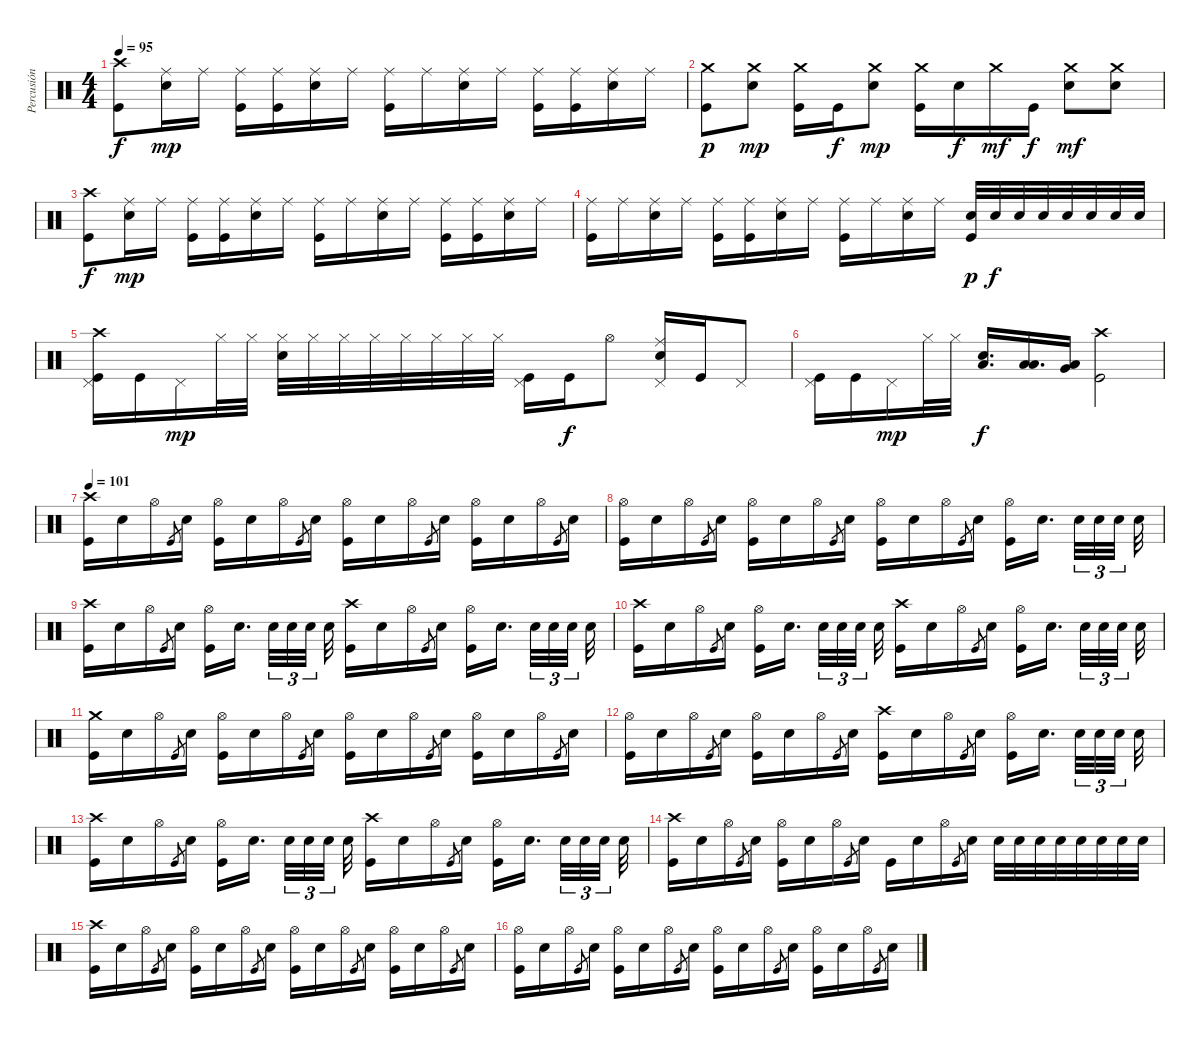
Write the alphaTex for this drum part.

\track ("Percusión" "Percusión") {instrument percussion}
\staff {score}
\articulation defaults
\ts (4 4)
\tempo 95
\clef neutral
\ks c
("Kick (hit)" "Crash high (hit)").8{dy f} ("Snare (hit) 2" "Ride (middle)").16{dy mp} "Ride (middle)".16 ("Kick (hit)" "Ride (middle)").16 ("Kick (hit)" "Ride (middle)").16 ("Snare (hit) 2" "Ride (middle)").16 "Ride (middle)".16 ("Kick (hit)" "Ride (middle)").16 "Ride (middle)".16 ("Snare (hit) 2" "Ride (middle)").16 "Ride (middle)".16 ("Kick (hit)" "Ride (middle)").16 ("Kick (hit)" "Ride (middle)").16 ("Snare (hit) 2" "Ride (middle)").16 "Ride (middle)".16 |
("Kick (hit)" "Crash medium (hit)").8{dy p} ("Snare (hit) 2" "Crash medium (hit)").8{dy mp} ("Kick (hit)" "Crash medium (hit)").16 "Kick (hit)".16{dy f} ("Snare (hit) 2" "Crash medium (hit)").8{dy mp} ("Kick (hit)" "Crash medium (hit)").16 "Snare (hit) 2".16{dy f} "Crash medium (hit)".16{dy mf} "Kick (hit)".16{dy f} ("Snare (hit) 2" "Crash medium (hit)").8{dy mf} ("Snare (hit) 2" "Crash medium (hit)").8 |
("Kick (hit)" "Crash high (hit)").8{dy f} ("Snare (hit) 2" "Ride (middle)").16{dy mp} "Ride (middle)".16 ("Kick (hit)" "Ride (middle)").16 ("Kick (hit)" "Ride (middle)").16 ("Snare (hit) 2" "Ride (middle)").16 "Ride (middle)".16 ("Kick (hit)" "Ride (middle)").16 "Ride (middle)".16 ("Snare (hit) 2" "Ride (middle)").16 "Ride (middle)".16 ("Kick (hit)" "Ride (middle)").16 ("Kick (hit)" "Ride (middle)").16 ("Snare (hit) 2" "Ride (middle)").16 "Ride (middle)".16 |
("Kick (hit)" "Ride (middle)").16 "Ride (middle)".16 ("Snare (hit) 2" "Ride (middle)").16 "Ride (middle)".16 ("Kick (hit)" "Ride (middle)").16 ("Kick (hit)" "Ride (middle)").16 ("Snare (hit) 2" "Ride (middle)").16 "Ride (middle)".16 ("Kick (hit)" "Ride (middle)").16 "Ride (middle)".16 ("Snare (hit) 2" "Ride (middle)").16 "Ride (middle)".16 ("Snare (hit) 2" "Kick (hit)").32{dy p} "Snare (hit) 2".32{dy f} "Snare (hit) 2".32 "Snare (hit) 2".32 "Snare (hit) 2".32 "Snare (hit) 2".32 "Snare (hit) 2".32 "Snare (hit) 2".32 |
("Kick (hit)" "Pedal Hi-Hat (hit)" "Crash high (hit)").16 "Kick (hit)".16 "Pedal Hi-Hat (hit)".16{dy mp} "Hi-Hat (closed)".32 "Hi-Hat (closed)".32 ("Snare (hit) 2" "Hi-Hat (closed)").32 "Hi-Hat (closed)".32 "Hi-Hat (closed)".32 "Hi-Hat (closed)".32 "Hi-Hat (closed)".32 "Hi-Hat (closed)".32 "Hi-Hat (closed)".32 "Hi-Hat (closed)".32 ("Kick (hit)" "Pedal Hi-Hat (hit)").16 "Kick (hit)".16{dy f} "Hi-Hat (open)".8 ("Snare (hit) 2" "Pedal Hi-Hat (hit)" "Ride (middle)").16 "Kick (hit)".16 "Pedal Hi-Hat (hit)".8 |
("Kick (hit)" "Pedal Hi-Hat (hit)").16 "Kick (hit)".16 "Pedal Hi-Hat (hit)".16{dy mp} "Hi-Hat (closed)".32 "Hi-Hat (closed)".32 ("Snare (hit) 2" "Low Floor Tom (hit)").16{d dy f} ("Low Tom (hit)" "Low Floor Tom (hit)").16{d} ("Very Low Tom (hit)" "Low Floor Tom (hit)").16 ("Kick (hit)" "Crash high (hit)").2 |
\tempo 101
("Kick (hit)" "Crash high (hit)").16 "Snare (hit) 2".16 "Hi-Hat (open)".16 "Kick (hit)".8{gr} "Snare (hit) 2".16 ("Kick (hit)" "Hi-Hat (open)").16 "Snare (hit) 2".16 "Hi-Hat (open)".16 "Kick (hit)".8{gr} "Snare (hit) 2".16 ("Kick (hit)" "Hi-Hat (open)").16 "Snare (hit) 2".16 "Hi-Hat (open)".16 "Kick (hit)".8{gr} "Snare (hit) 2".16 ("Kick (hit)" "Hi-Hat (open)").16 "Snare (hit) 2".16 "Hi-Hat (open)".16 "Kick (hit)".8{gr} "Snare (hit) 2".16 |
("Kick (hit)" "Hi-Hat (open)").16 "Snare (hit) 2".16 "Hi-Hat (open)".16 "Kick (hit)".8{gr} "Snare (hit) 2".16 ("Kick (hit)" "Hi-Hat (open)").16 "Snare (hit) 2".16 "Hi-Hat (open)".16 "Kick (hit)".8{gr} "Snare (hit) 2".16 ("Kick (hit)" "Hi-Hat (open)").16 "Snare (hit) 2".16 "Hi-Hat (open)".16 "Kick (hit)".8{gr} "Snare (hit) 2".16 ("Kick (hit)" "Hi-Hat (open)").16 "Snare (hit) 2".16{d beam splitsecondary} "Snare (hit) 2".32{tu (3 2)} "Snare (hit) 2".32{tu (3 2)} "Snare (hit) 2".32{tu (3 2) beam splitsecondary} "Snare (hit) 2".32 |
("Kick (hit)" "Crash high (hit)").16 "Snare (hit) 2".16 "Hi-Hat (open)".16 "Kick (hit)".8{gr} "Snare (hit) 2".16 ("Kick (hit)" "Hi-Hat (open)").16 "Snare (hit) 2".16{d beam splitsecondary} "Snare (hit) 2".32{tu (3 2)} "Snare (hit) 2".32{tu (3 2)} "Snare (hit) 2".32{tu (3 2) beam splitsecondary} "Snare (hit) 2".32 ("Kick (hit)" "Crash high (hit)").16 "Snare (hit) 2".16 "Hi-Hat (open)".16 "Kick (hit)".8{gr} "Snare (hit) 2".16 ("Kick (hit)" "Hi-Hat (open)").16 "Snare (hit) 2".16{d beam splitsecondary} "Snare (hit) 2".32{tu (3 2)} "Snare (hit) 2".32{tu (3 2)} "Snare (hit) 2".32{tu (3 2) beam splitsecondary} "Snare (hit) 2".32 |
("Kick (hit)" "Crash high (hit)").16 "Snare (hit) 2".16 "Hi-Hat (open)".16 "Kick (hit)".8{gr} "Snare (hit) 2".16 ("Kick (hit)" "Hi-Hat (open)").16 "Snare (hit) 2".16{d beam splitsecondary} "Snare (hit) 2".32{tu (3 2)} "Snare (hit) 2".32{tu (3 2)} "Snare (hit) 2".32{tu (3 2) beam splitsecondary} "Snare (hit) 2".32 ("Kick (hit)" "Crash high (hit)").16 "Snare (hit) 2".16 "Hi-Hat (open)".16 "Kick (hit)".8{gr} "Snare (hit) 2".16 ("Kick (hit)" "Hi-Hat (open)").16 "Snare (hit) 2".16{d beam splitsecondary} "Snare (hit) 2".32{tu (3 2)} "Snare (hit) 2".32{tu (3 2)} "Snare (hit) 2".32{tu (3 2) beam splitsecondary} "Snare (hit) 2".32 |
("Kick (hit)" "Crash medium (hit)").16 "Snare (hit) 2".16 "Hi-Hat (open)".16 "Kick (hit)".8{gr} "Snare (hit) 2".16 ("Kick (hit)" "Hi-Hat (open)").16 "Snare (hit) 2".16 "Hi-Hat (open)".16 "Kick (hit)".8{gr} "Snare (hit) 2".16 ("Kick (hit)" "Hi-Hat (open)").16 "Snare (hit) 2".16 "Hi-Hat (open)".16 "Kick (hit)".8{gr} "Snare (hit) 2".16 ("Kick (hit)" "Hi-Hat (open)").16 "Snare (hit) 2".16 "Hi-Hat (open)".16 "Kick (hit)".8{gr} "Snare (hit) 2".16 |
("Kick (hit)" "Hi-Hat (open)").16 "Snare (hit) 2".16 "Hi-Hat (open)".16 "Kick (hit)".8{gr} "Snare (hit) 2".16 ("Kick (hit)" "Hi-Hat (open)").16 "Snare (hit) 2".16 "Hi-Hat (open)".16 "Kick (hit)".8{gr} "Snare (hit) 2".16 ("Kick (hit)" "Crash high (hit)").16 "Snare (hit) 2".16 "Hi-Hat (open)".16 "Kick (hit)".8{gr} "Snare (hit) 2".16 ("Kick (hit)" "Hi-Hat (open)").16 "Snare (hit) 2".16{d beam splitsecondary} "Snare (hit) 2".32{tu (3 2)} "Snare (hit) 2".32{tu (3 2)} "Snare (hit) 2".32{tu (3 2) beam splitsecondary} "Snare (hit) 2".32 |
("Kick (hit)" "Crash high (hit)").16 "Snare (hit) 2".16 "Hi-Hat (open)".16 "Kick (hit)".8{gr} "Snare (hit) 2".16 ("Kick (hit)" "Hi-Hat (open)").16 "Snare (hit) 2".16{d beam splitsecondary} "Snare (hit) 2".32{tu (3 2)} "Snare (hit) 2".32{tu (3 2)} "Snare (hit) 2".32{tu (3 2) beam splitsecondary} "Snare (hit) 2".32 ("Kick (hit)" "Crash high (hit)").16 "Snare (hit) 2".16 "Hi-Hat (open)".16 "Kick (hit)".8{gr} "Snare (hit) 2".16 ("Kick (hit)" "Hi-Hat (open)").16 "Snare (hit) 2".16{d beam splitsecondary} "Snare (hit) 2".32{tu (3 2)} "Snare (hit) 2".32{tu (3 2)} "Snare (hit) 2".32{tu (3 2) beam splitsecondary} "Snare (hit) 2".32 |
("Kick (hit)" "Crash high (hit)").16 "Snare (hit) 2".16 "Hi-Hat (open)".16 "Kick (hit)".8{gr} "Snare (hit) 2".16 ("Kick (hit)" "Hi-Hat (open)").16 "Snare (hit) 2".16 "Hi-Hat (open)".16 "Kick (hit)".8{gr} "Snare (hit) 2".16 "Kick (hit)".16 "Snare (hit) 2".16 "Hi-Hat (open)".16 "Kick (hit)".8{gr} "Snare (hit) 2".16 "Snare (hit) 2".32 "Snare (hit) 2".32 "Snare (hit) 2".32 "Snare (hit) 2".32 "Snare (hit) 2".32 "Snare (hit) 2".32 "Snare (hit) 2".32 "Snare (hit) 2".32 |
("Kick (hit)" "Crash high (hit)").16 "Snare (hit) 2".16 "Hi-Hat (open)".16 "Kick (hit)".8{gr} "Snare (hit) 2".16 ("Kick (hit)" "Hi-Hat (open)").16 "Snare (hit) 2".16 "Hi-Hat (open)".16 "Kick (hit)".8{gr} "Snare (hit) 2".16 ("Kick (hit)" "Hi-Hat (open)").16 "Snare (hit) 2".16 "Hi-Hat (open)".16 "Kick (hit)".8{gr} "Snare (hit) 2".16 ("Kick (hit)" "Hi-Hat (open)").16 "Snare (hit) 2".16 "Hi-Hat (open)".16 "Kick (hit)".8{gr} "Snare (hit) 2".16 |
("Kick (hit)" "Hi-Hat (open)").16 "Snare (hit) 2".16 "Hi-Hat (open)".16 "Kick (hit)".8{gr} "Snare (hit) 2".16 ("Kick (hit)" "Hi-Hat (open)").16 "Snare (hit) 2".16 "Hi-Hat (open)".16 "Kick (hit)".8{gr} "Snare (hit) 2".16 ("Kick (hit)" "Hi-Hat (open)").16 "Snare (hit) 2".16 "Hi-Hat (open)".16 "Kick (hit)".8{gr} "Snare (hit) 2".16 ("Kick (hit)" "Hi-Hat (open)").16 "Snare (hit) 2".16 "Hi-Hat (open)".16 "Kick (hit)".8{gr} "Snare (hit) 2".16
